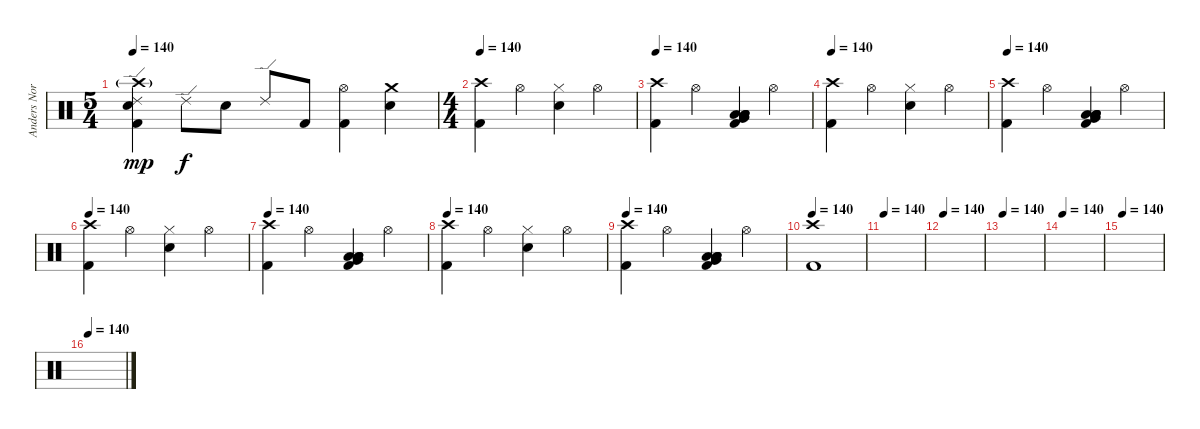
\track ("Anders Nordin" "Anders Nor") {instrument percussion}
\staff {score}
\articulation defaults
\ts (5 4)
\tempo 140
\clef neutral
\ks c
("Kick (hit) 2" "Electric Snare (hit)" "Ride (edge) 2" "Crash high (hit)"{g}).4{dy mp volume 10} "Ride (edge) 2".8{dy f} "Electric Snare (hit)".8 "Ride (edge) 2".8 "Kick (hit) 2".8 ("Kick (hit) 2" "Hi-Hat (open)").4 ("Electric Snare (hit)" "Crash medium (hit)").4 |
\ts (4 4)
\tempo 140
("Kick (hit) 2" "Crash high (hit)").4{volume 10} "Hi-Hat (open)".4 ("Electric Snare (hit)" "Hi-Hat (closed)").4 "Hi-Hat (open)".4 |
\tempo 140
("Kick (hit) 2" "Crash high (hit)").4 "Hi-Hat (open)".4 ("Kick (hit) 2" "Low Tom (hit)" "Low Tom (hit)" "Very Low Tom (hit)" "Low Floor Tom (hit)" "Low Floor Tom (hit)").4{volume 16} "Hi-Hat (open)".4{volume 10} |
\tempo 140
("Kick (hit) 2" "Crash high (hit)").4{volume 10} "Hi-Hat (open)".4 ("Electric Snare (hit)" "Hi-Hat (closed)").4 "Hi-Hat (open)".4 |
\tempo 140
("Kick (hit) 2" "Crash high (hit)").4 "Hi-Hat (open)".4 ("Kick (hit) 2" "Low Tom (hit)" "Low Tom (hit)" "Very Low Tom (hit)" "Low Floor Tom (hit)" "Low Floor Tom (hit)").4{volume 16} "Hi-Hat (open)".4{volume 10} |
\tempo 140
("Kick (hit) 2" "Crash high (hit)").4{volume 10} "Hi-Hat (open)".4 ("Electric Snare (hit)" "Hi-Hat (closed)").4 "Hi-Hat (open)".4 |
\tempo 140
("Kick (hit) 2" "Crash high (hit)").4 "Hi-Hat (open)".4 ("Kick (hit) 2" "Low Tom (hit)" "Low Tom (hit)" "Very Low Tom (hit)" "Low Floor Tom (hit)" "Low Floor Tom (hit)").4{volume 16} "Hi-Hat (open)".4{volume 10} |
\tempo 140
("Kick (hit) 2" "Crash high (hit)").4{volume 10} "Hi-Hat (open)".4 ("Electric Snare (hit)" "Hi-Hat (closed)").4 "Hi-Hat (open)".4 |
\tempo 140
("Kick (hit) 2" "Crash high (hit)").4 "Hi-Hat (open)".4 ("Kick (hit) 2" "Low Tom (hit)" "Low Tom (hit)" "Very Low Tom (hit)" "Low Floor Tom (hit)" "Low Floor Tom (hit)").4{volume 16} "Hi-Hat (open)".4{volume 10} |
\tempo 140
("Kick (hit) 2" "Crash high (hit)").1 |
\tempo 140
|
\tempo 140
|
\tempo 140
|
\tempo 140
|
\tempo 140
|
\tempo 140
